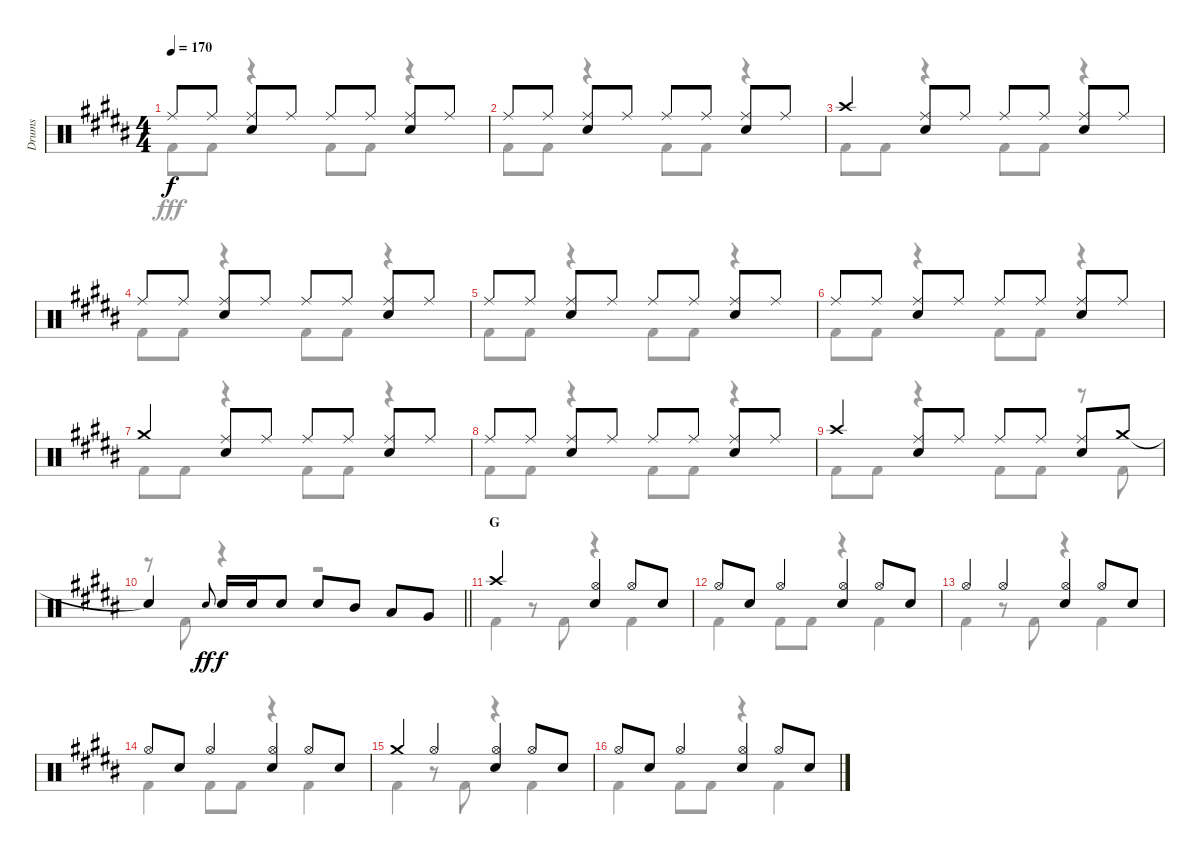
\track ("Drums" "Drums") {instrument percussion}
\staff {score}
\articulation defaults
\voice
\ts (4 4)
\tempo 170
\clef neutral
\ks b "Ride (middle)".8{dy f} "Ride (middle)".8
("Ride (middle)" "Snare (hit) 2").8 "Ride (middle)".8 "Ride (middle)".8 "Ride (middle)".8 ("Ride (middle)" "Snare (hit) 2").8 "Ride (middle)".8 |
"Ride (middle)".8 "Ride (middle)".8 ("Ride (middle)" "Snare (hit) 2").8 "Ride (middle)".8 "Ride (middle)".8 "Ride (middle)".8 ("Ride (middle)" "Snare (hit) 2").8 "Ride (middle)".8 |
"Crash high (hit)".4 ("Ride (middle)" "Snare (hit) 2").8 "Ride (middle)".8 "Ride (middle)".8 "Ride (middle)".8 ("Ride (middle)" "Snare (hit) 2").8 "Ride (middle)".8 |
"Ride (middle)".8 "Ride (middle)".8 ("Ride (middle)" "Snare (hit) 2").8 "Ride (middle)".8 "Ride (middle)".8 "Ride (middle)".8 ("Ride (middle)" "Snare (hit) 2").8 "Ride (middle)".8 |
"Ride (middle)".8 "Ride (middle)".8 ("Ride (middle)" "Snare (hit) 2").8 "Ride (middle)".8 "Ride (middle)".8 "Ride (middle)".8 ("Ride (middle)" "Snare (hit) 2").8 "Ride (middle)".8 |
"Ride (middle)".8 "Ride (middle)".8 ("Ride (middle)" "Snare (hit) 2").8 "Ride (middle)".8 "Ride (middle)".8 "Ride (middle)".8 ("Ride (middle)" "Snare (hit) 2").8 "Ride (middle)".8 |
"Crash medium (hit)".4 ("Ride (middle)" "Snare (hit) 2").8 "Ride (middle)".8 "Ride (middle)".8 "Ride (middle)".8 ("Ride (middle)" "Snare (hit) 2").8 "Ride (middle)".8 |
"Ride (middle)".8 "Ride (middle)".8 ("Ride (middle)" "Snare (hit) 2").8 "Ride (middle)".8 "Ride (middle)".8 "Ride (middle)".8 ("Ride (middle)" "Snare (hit) 2").8 "Ride (middle)".8 |
"Crash high (hit)".4 ("Ride (middle)" "Snare (hit) 2").8 "Ride (middle)".8 "Ride (middle)".8 "Ride (middle)".8 ("Ride (middle)" "Snare (hit) 2").8 "Crash medium (hit)".8 |
\barLineRight lightlight "Snare (hit)"{t}.4 "Snare (hit) 2".8{gr onbeat dy ff} "Snare (hit) 2".16{dy f} "Snare (hit) 2".16 "Snare (hit) 2".8 "Snare (hit) 2".8 "Mid Tom (hit)".8 "Low Tom (hit)".8 "Very Low Tom (hit)".8
|
\section ("" "G")
"Crash high (hit)".2 ("Hi-Hat (open)" "Snare (hit) 2").4 "Hi-Hat (open)".8 "Snare (hit) 2".8 |
"Hi-Hat (open)".8 "Snare (hit) 2".8 "Hi-Hat (open)".4 ("Hi-Hat (open)" "Snare (hit) 2").4 "Hi-Hat (open)".8 "Snare (hit) 2".8 |
"Hi-Hat (open)".4 "Hi-Hat (open)".4 ("Hi-Hat (open)" "Snare (hit) 2").4 "Hi-Hat (open)".8 "Snare (hit) 2".8 |
"Hi-Hat (open)".8 "Snare (hit) 2".8 "Hi-Hat (open)".4 ("Hi-Hat (open)" "Snare (hit) 2").4 "Hi-Hat (open)".8 "Snare (hit) 2".8 |
"Crash medium (hit)".4 "Hi-Hat (open)".4 ("Hi-Hat (open)" "Snare (hit) 2").4 "Hi-Hat (open)".8 "Snare (hit) 2".8 |
"Hi-Hat (open)".8 "Snare (hit) 2".8 "Hi-Hat (open)".4 ("Hi-Hat (open)" "Snare (hit) 2").4 "Hi-Hat (open)".8 "Snare (hit) 2".8
\voice
\clef neutral
\ottava regular
\simile none
\ks b "Kick (hit) 2".8{dy fff} "Kick (hit) 2".8
r.4 "Kick (hit) 2".8 "Kick (hit) 2".8 r.4 |
"Kick (hit) 2".8 "Kick (hit) 2".8 r.4 "Kick (hit) 2".8 "Kick (hit) 2".8 r.4 |
"Kick (hit) 2".8 "Kick (hit) 2".8 r.4 "Kick (hit) 2".8 "Kick (hit) 2".8 r.4 |
"Kick (hit) 2".8 "Kick (hit) 2".8 r.4 "Kick (hit) 2".8 "Kick (hit) 2".8 r.4 |
"Kick (hit) 2".8 "Kick (hit) 2".8 r.4 "Kick (hit) 2".8 "Kick (hit) 2".8 r.4 |
"Kick (hit) 2".8 "Kick (hit) 2".8 r.4 "Kick (hit) 2".8 "Kick (hit) 2".8 r.4 |
"Kick (hit) 2".8 "Kick (hit) 2".8 r.4 "Kick (hit) 2".8 "Kick (hit) 2".8 r.4 |
"Kick (hit) 2".8 "Kick (hit) 2".8 r.4 "Kick (hit) 2".8 "Kick (hit) 2".8 r.4 |
"Kick (hit) 2".8 "Kick (hit) 2".8 r.4 "Kick (hit) 2".8 "Kick (hit) 2".8 r.8 "Kick (hit) 2".8 |
\barLineRight lightlight
r.8 "Kick (hit) 2".8 r.4 r.2 |
"Kick (hit) 2".4 r.8 "Kick (hit) 2".8 r.4 "Kick (hit) 2".4 |
"Kick (hit) 2".4 "Kick (hit) 2".8 "Kick (hit) 2".8 r.4 "Kick (hit) 2".4 |
"Kick (hit) 2".4 r.8 "Kick (hit) 2".8 r.4 "Kick (hit) 2".4 |
"Kick (hit) 2".4 "Kick (hit) 2".8 "Kick (hit) 2".8 r.4 "Kick (hit) 2".4 |
"Kick (hit) 2".4 r.8 "Kick (hit) 2".8 r.4 "Kick (hit) 2".4 |
"Kick (hit) 2".4 "Kick (hit) 2".8 "Kick (hit) 2".8 r.4 "Kick (hit) 2".4
